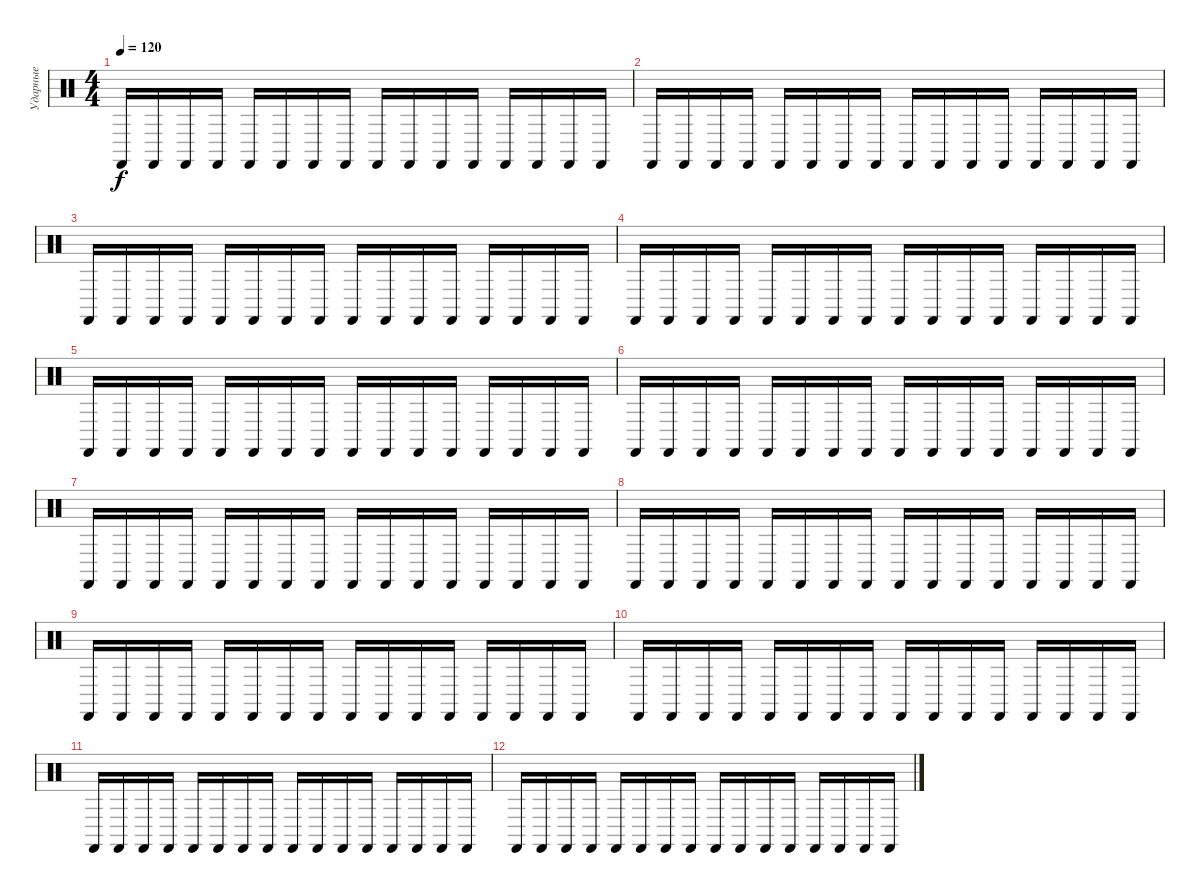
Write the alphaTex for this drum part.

\track ("Ударные" "Ударные") {instrument percussion}
\staff {score}
\articulation defaults
\ts (4 4)
\tempo 120
\clef neutral
\ks c "Castanets (hit)".16{dy f} "Castanets (hit)".16 "Castanets (hit)".16 "Castanets (hit)".16 "Castanets (hit)".16 "Castanets (hit)".16 "Castanets (hit)".16 "Castanets (hit)".16 "Castanets (hit)".16 "Castanets (hit)".16 "Castanets (hit)".16 "Castanets (hit)".16 "Castanets (hit)".16 "Castanets (hit)".16 "Castanets (hit)".16 "Castanets (hit)".16
|
"Castanets (hit)".16 "Castanets (hit)".16 "Castanets (hit)".16 "Castanets (hit)".16 "Castanets (hit)".16 "Castanets (hit)".16 "Castanets (hit)".16 "Castanets (hit)".16 "Castanets (hit)".16 "Castanets (hit)".16 "Castanets (hit)".16 "Castanets (hit)".16 "Castanets (hit)".16 "Castanets (hit)".16 "Castanets (hit)".16 "Castanets (hit)".16 |
"Castanets (hit)".16 "Castanets (hit)".16 "Castanets (hit)".16 "Castanets (hit)".16 "Castanets (hit)".16 "Castanets (hit)".16 "Castanets (hit)".16 "Castanets (hit)".16 "Castanets (hit)".16 "Castanets (hit)".16 "Castanets (hit)".16 "Castanets (hit)".16 "Castanets (hit)".16 "Castanets (hit)".16 "Castanets (hit)".16 "Castanets (hit)".16 |
"Castanets (hit)".16 "Castanets (hit)".16 "Castanets (hit)".16 "Castanets (hit)".16 "Castanets (hit)".16 "Castanets (hit)".16 "Castanets (hit)".16 "Castanets (hit)".16 "Castanets (hit)".16 "Castanets (hit)".16 "Castanets (hit)".16 "Castanets (hit)".16 "Castanets (hit)".16 "Castanets (hit)".16 "Castanets (hit)".16 "Castanets (hit)".16 |
"Castanets (hit)".16 "Castanets (hit)".16 "Castanets (hit)".16 "Castanets (hit)".16 "Castanets (hit)".16 "Castanets (hit)".16 "Castanets (hit)".16 "Castanets (hit)".16 "Castanets (hit)".16 "Castanets (hit)".16 "Castanets (hit)".16 "Castanets (hit)".16 "Castanets (hit)".16 "Castanets (hit)".16 "Castanets (hit)".16 "Castanets (hit)".16 |
"Castanets (hit)".16 "Castanets (hit)".16 "Castanets (hit)".16 "Castanets (hit)".16 "Castanets (hit)".16 "Castanets (hit)".16 "Castanets (hit)".16 "Castanets (hit)".16 "Castanets (hit)".16 "Castanets (hit)".16 "Castanets (hit)".16 "Castanets (hit)".16 "Castanets (hit)".16 "Castanets (hit)".16 "Castanets (hit)".16 "Castanets (hit)".16 |
"Castanets (hit)".16 "Castanets (hit)".16 "Castanets (hit)".16 "Castanets (hit)".16 "Castanets (hit)".16 "Castanets (hit)".16 "Castanets (hit)".16 "Castanets (hit)".16 "Castanets (hit)".16 "Castanets (hit)".16 "Castanets (hit)".16 "Castanets (hit)".16 "Castanets (hit)".16 "Castanets (hit)".16 "Castanets (hit)".16 "Castanets (hit)".16 |
"Castanets (hit)".16 "Castanets (hit)".16 "Castanets (hit)".16 "Castanets (hit)".16 "Castanets (hit)".16 "Castanets (hit)".16 "Castanets (hit)".16 "Castanets (hit)".16 "Castanets (hit)".16 "Castanets (hit)".16 "Castanets (hit)".16 "Castanets (hit)".16 "Castanets (hit)".16 "Castanets (hit)".16 "Castanets (hit)".16 "Castanets (hit)".16 |
"Castanets (hit)".16 "Castanets (hit)".16 "Castanets (hit)".16 "Castanets (hit)".16 "Castanets (hit)".16 "Castanets (hit)".16 "Castanets (hit)".16 "Castanets (hit)".16 "Castanets (hit)".16 "Castanets (hit)".16 "Castanets (hit)".16 "Castanets (hit)".16 "Castanets (hit)".16 "Castanets (hit)".16 "Castanets (hit)".16 "Castanets (hit)".16 |
"Castanets (hit)".16 "Castanets (hit)".16 "Castanets (hit)".16 "Castanets (hit)".16 "Castanets (hit)".16 "Castanets (hit)".16 "Castanets (hit)".16 "Castanets (hit)".16 "Castanets (hit)".16 "Castanets (hit)".16 "Castanets (hit)".16 "Castanets (hit)".16 "Castanets (hit)".16 "Castanets (hit)".16 "Castanets (hit)".16 "Castanets (hit)".16 |
"Castanets (hit)".16 "Castanets (hit)".16 "Castanets (hit)".16 "Castanets (hit)".16 "Castanets (hit)".16 "Castanets (hit)".16 "Castanets (hit)".16 "Castanets (hit)".16 "Castanets (hit)".16 "Castanets (hit)".16 "Castanets (hit)".16 "Castanets (hit)".16 "Castanets (hit)".16 "Castanets (hit)".16 "Castanets (hit)".16 "Castanets (hit)".16 |
"Castanets (hit)".16 "Castanets (hit)".16 "Castanets (hit)".16 "Castanets (hit)".16 "Castanets (hit)".16 "Castanets (hit)".16 "Castanets (hit)".16 "Castanets (hit)".16 "Castanets (hit)".16 "Castanets (hit)".16 "Castanets (hit)".16 "Castanets (hit)".16 "Castanets (hit)".16 "Castanets (hit)".16 "Castanets (hit)".16 "Castanets (hit)".16
